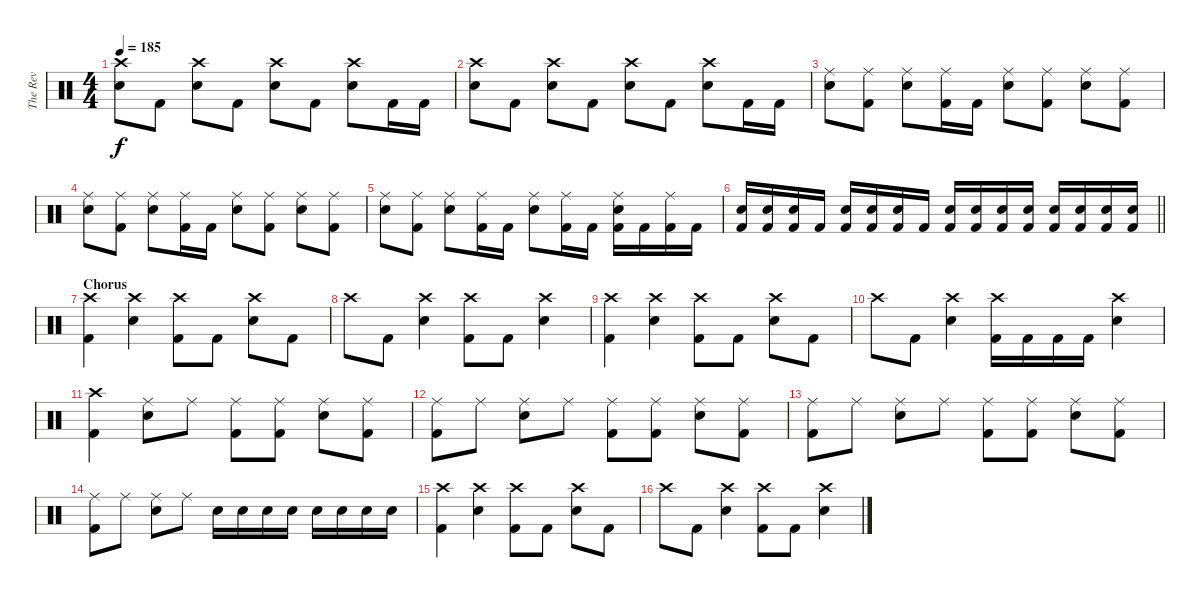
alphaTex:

\track ("The Rev" "The Rev") {instrument percussion}
\staff {score}
\articulation defaults
\ts (4 4)
\tempo 185
\clef neutral
\ks c
("Crash high (hit)" "Electric Snare (hit)").8{dy f} "Kick (hit) 2".8 ("Crash high (hit)" "Electric Snare (hit)").8 "Kick (hit) 2".8 ("Crash high (hit)" "Electric Snare (hit)").8 "Kick (hit) 2".8 ("Crash high (hit)" "Electric Snare (hit)").8 "Kick (hit) 2".16 "Kick (hit) 2".16 |
("Crash high (hit)" "Electric Snare (hit)").8 "Kick (hit) 2".8 ("Crash high (hit)" "Electric Snare (hit)").8 "Kick (hit) 2".8 ("Crash high (hit)" "Electric Snare (hit)").8 "Kick (hit) 2".8 ("Crash high (hit)" "Electric Snare (hit)").8 "Kick (hit) 2".16 "Kick (hit) 2".16 |
("Ride (middle)" "Electric Snare (hit)").8 ("Ride (middle)" "Kick (hit) 2").8 ("Ride (middle)" "Electric Snare (hit)").8 ("Ride (middle)" "Kick (hit) 2").16 "Kick (hit) 2".16 ("Ride (middle)" "Electric Snare (hit)").8 ("Ride (middle)" "Kick (hit) 2").8 ("Ride (middle)" "Electric Snare (hit)").8 ("Ride (middle)" "Kick (hit) 2").8 |
("Ride (middle)" "Electric Snare (hit)").8 ("Ride (middle)" "Kick (hit) 2").8 ("Ride (middle)" "Electric Snare (hit)").8 ("Ride (middle)" "Kick (hit) 2").16 "Kick (hit) 2".16 ("Ride (middle)" "Electric Snare (hit)").8 ("Ride (middle)" "Kick (hit) 2").8 ("Ride (middle)" "Electric Snare (hit)").8 ("Ride (middle)" "Kick (hit) 2").8 |
("Ride (middle)" "Electric Snare (hit)").8 ("Ride (middle)" "Kick (hit) 2").8 ("Ride (middle)" "Electric Snare (hit)").8 ("Ride (middle)" "Kick (hit) 2").16 "Kick (hit) 2".16 ("Ride (middle)" "Electric Snare (hit)").8 ("Ride (middle)" "Kick (hit) 2").16 "Kick (hit) 2".16 ("Ride (middle)" "Electric Snare (hit)" "Kick (hit) 2").16 "Kick (hit) 2".16 ("Ride (middle)" "Kick (hit) 2").16 "Kick (hit) 2".16 |
\barLineRight lightlight
("Electric Snare (hit)" "Kick (hit) 2").16 ("Electric Snare (hit)" "Kick (hit) 2").16 ("Electric Snare (hit)" "Kick (hit) 2").16 "Kick (hit) 2".16 ("Electric Snare (hit)" "Kick (hit) 2").16 ("Electric Snare (hit)" "Kick (hit) 2").16 ("Electric Snare (hit)" "Kick (hit) 2").16 "Kick (hit) 2".16 ("Electric Snare (hit)" "Kick (hit) 2").16 ("Electric Snare (hit)" "Kick (hit) 2").16 ("Electric Snare (hit)" "Kick (hit) 2").16 ("Electric Snare (hit)" "Kick (hit) 2").16 ("Electric Snare (hit)" "Kick (hit) 2").16 ("Electric Snare (hit)" "Kick (hit) 2").16 ("Electric Snare (hit)" "Kick (hit) 2").16 ("Electric Snare (hit)" "Kick (hit) 2").16 |
\section ("" "Chorus")
("Crash high (hit)" "Kick (hit) 2").4 ("Crash high (hit)" "Electric Snare (hit)").4 ("Crash high (hit)" "Kick (hit) 2").8 "Kick (hit) 2".8 ("Crash high (hit)" "Electric Snare (hit)").8 "Kick (hit) 2".8 |
"Crash high (hit)".8 "Kick (hit) 2".8 ("Crash high (hit)" "Electric Snare (hit)").4 ("Crash high (hit)" "Kick (hit) 2").8 "Kick (hit) 2".8 ("Crash high (hit)" "Electric Snare (hit)").4 |
("Crash high (hit)" "Kick (hit) 2").4 ("Crash high (hit)" "Electric Snare (hit)").4 ("Crash high (hit)" "Kick (hit) 2").8 "Kick (hit) 2".8 ("Crash high (hit)" "Electric Snare (hit)").8 "Kick (hit) 2".8 |
"Crash high (hit)".8 "Kick (hit) 2".8 ("Crash high (hit)" "Electric Snare (hit)").4 ("Crash high (hit)" "Kick (hit) 2").16 "Kick (hit) 2".16 "Kick (hit) 2".16 "Kick (hit) 2".16 ("Crash high (hit)" "Electric Snare (hit)").4 |
("Crash high (hit)" "Kick (hit) 2").4 ("Ride (middle)" "Electric Snare (hit)").8 "Ride (middle)".8 ("Ride (middle)" "Kick (hit) 2").8 ("Ride (middle)" "Kick (hit) 2").8 ("Ride (middle)" "Electric Snare (hit)").8 ("Ride (middle)" "Kick (hit) 2").8 |
("Ride (middle)" "Kick (hit) 2").8 "Ride (middle)".8 ("Ride (middle)" "Electric Snare (hit)").8 "Ride (middle)".8 ("Ride (middle)" "Kick (hit) 2").8 ("Ride (middle)" "Kick (hit) 2").8 ("Ride (middle)" "Electric Snare (hit)").8 ("Ride (middle)" "Kick (hit) 2").8 |
("Ride (middle)" "Kick (hit) 2").8 "Ride (middle)".8 ("Ride (middle)" "Electric Snare (hit)").8 "Ride (middle)".8 ("Ride (middle)" "Kick (hit) 2").8 ("Ride (middle)" "Kick (hit) 2").8 ("Ride (middle)" "Electric Snare (hit)").8 ("Ride (middle)" "Kick (hit) 2").8 |
("Ride (middle)" "Kick (hit) 2").8 "Ride (middle)".8 ("Ride (middle)" "Electric Snare (hit)").8 "Ride (middle)".8 "Electric Snare (hit)".16 "Electric Snare (hit)".16 "Electric Snare (hit)".16 "Electric Snare (hit)".16 "Electric Snare (hit)".16 "Electric Snare (hit)".16 "Electric Snare (hit)".16 "Electric Snare (hit)".16 |
("Crash high (hit)" "Kick (hit) 2").4 ("Crash high (hit)" "Electric Snare (hit)").4 ("Crash high (hit)" "Kick (hit) 2").8 "Kick (hit) 2".8 ("Crash high (hit)" "Electric Snare (hit)").8 "Kick (hit) 2".8 |
"Crash high (hit)".8 "Kick (hit) 2".8 ("Crash high (hit)" "Electric Snare (hit)").4 ("Crash high (hit)" "Kick (hit) 2").8 "Kick (hit) 2".8 ("Crash high (hit)" "Electric Snare (hit)").4
